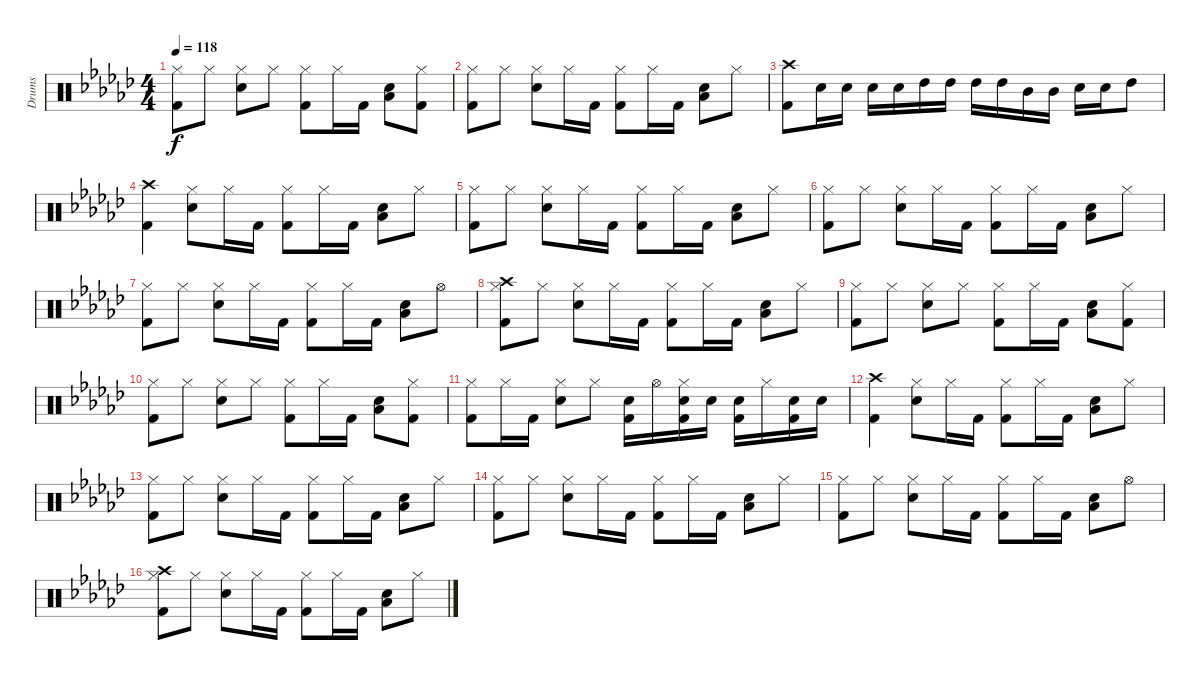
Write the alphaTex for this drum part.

\track ("Drums" "Drums") {instrument percussion}
\staff {score}
\articulation defaults
\ts (4 4)
\tempo 118
\clef neutral
\ks ebminor
("Hi-Hat (closed)" "Kick (hit) 2").8{dy f} "Hi-Hat (closed)".8 ("Hi-Hat (closed)" "Electric Snare (hit)").8 "Hi-Hat (closed)".8 ("Hi-Hat (closed)" "Kick (hit) 2").8 "Hi-Hat (closed)".16 "Kick (hit) 2".16 ("Electric Snare (hit)" "Low Tom (hit)").8 ("Hi-Hat (closed)" "Kick (hit) 2").8 |
("Hi-Hat (closed)" "Kick (hit) 2").8 "Hi-Hat (closed)".8 ("Hi-Hat (closed)" "Electric Snare (hit)").8 "Hi-Hat (closed)".16 "Kick (hit) 2".16 ("Hi-Hat (closed)" "Kick (hit) 2").8 "Hi-Hat (closed)".16 "Kick (hit) 2".16 ("Electric Snare (hit)" "Low Tom (hit)").8 "Hi-Hat (closed)".8 |
("Crash high (hit)" "Kick (hit) 2").8 "Electric Snare (hit)".16 "Electric Snare (hit)".16 "Electric Snare (hit)".16 "Electric Snare (hit)".16 "High Tom (hit)".16 "High Tom (hit)".16 "High Tom (hit)".16 "High Tom (hit)".16 "Mid Tom (hit)".16 "Mid Tom (hit)".16 "Electric Snare (hit)".16 "Electric Snare (hit)".16 "High Tom (hit)".8 |
("Crash high (hit)" "Kick (hit) 2").4 ("Hi-Hat (closed)" "Electric Snare (hit)").8 "Hi-Hat (closed)".16 "Kick (hit) 2".16 ("Hi-Hat (closed)" "Kick (hit) 2").8 "Hi-Hat (closed)".16 "Kick (hit) 2".16 ("Electric Snare (hit)" "Low Tom (hit)").8 "Hi-Hat (closed)".8 |
("Hi-Hat (closed)" "Kick (hit) 2").8 "Hi-Hat (closed)".8 ("Hi-Hat (closed)" "Electric Snare (hit)").8 "Hi-Hat (closed)".16 "Kick (hit) 2".16 ("Hi-Hat (closed)" "Kick (hit) 2").8 "Hi-Hat (closed)".16 "Kick (hit) 2".16 ("Electric Snare (hit)" "Low Tom (hit)").8 "Hi-Hat (closed)".8 |
("Hi-Hat (closed)" "Kick (hit) 2").8 "Hi-Hat (closed)".8 ("Hi-Hat (closed)" "Electric Snare (hit)").8 "Hi-Hat (closed)".16 "Kick (hit) 2".16 ("Hi-Hat (closed)" "Kick (hit) 2").8 "Hi-Hat (closed)".16 "Kick (hit) 2".16 ("Electric Snare (hit)" "Low Tom (hit)").8 "Hi-Hat (closed)".8 |
("Hi-Hat (closed)" "Kick (hit) 2").8 "Hi-Hat (closed)".8 ("Hi-Hat (closed)" "Electric Snare (hit)").8 "Hi-Hat (closed)".16 "Kick (hit) 2".16 ("Hi-Hat (closed)" "Kick (hit) 2").8 "Hi-Hat (closed)".16 "Kick (hit) 2".16 ("Electric Snare (hit)" "Low Tom (hit)").8 "Hi-Hat (open)".8 |
("Hi-Hat (closed)" "Crash high (hit)" "Kick (hit) 2").8 "Hi-Hat (closed)".8 ("Hi-Hat (closed)" "Electric Snare (hit)").8 "Hi-Hat (closed)".16 "Kick (hit) 2".16 ("Hi-Hat (closed)" "Kick (hit) 2").8 "Hi-Hat (closed)".16 "Kick (hit) 2".16 ("Electric Snare (hit)" "Low Tom (hit)").8 "Hi-Hat (closed)".8 |
("Hi-Hat (closed)" "Kick (hit) 2").8 "Hi-Hat (closed)".8 ("Hi-Hat (closed)" "Electric Snare (hit)").8 "Hi-Hat (closed)".8 ("Hi-Hat (closed)" "Kick (hit) 2").8 "Hi-Hat (closed)".16 "Kick (hit) 2".16 ("Electric Snare (hit)" "Low Tom (hit)").8 ("Hi-Hat (closed)" "Kick (hit) 2").8 |
("Hi-Hat (closed)" "Kick (hit) 2").8 "Hi-Hat (closed)".8 ("Hi-Hat (closed)" "Electric Snare (hit)").8 "Hi-Hat (closed)".8 ("Hi-Hat (closed)" "Kick (hit) 2").8 "Hi-Hat (closed)".16 "Kick (hit) 2".16 ("Electric Snare (hit)" "Low Tom (hit)").8 ("Hi-Hat (closed)" "Kick (hit) 2").8 |
("Hi-Hat (closed)" "Kick (hit) 2").8 "Hi-Hat (closed)".16 "Kick (hit) 2".16 ("Hi-Hat (closed)" "Electric Snare (hit)").8 "Hi-Hat (closed)".8 ("Electric Snare (hit)" "Kick (hit) 2").16 "Hi-Hat (open)".16 ("Hi-Hat (closed)" "Electric Snare (hit)" "Kick (hit) 2").16 "Electric Snare (hit)".16 ("Electric Snare (hit)" "Kick (hit) 2").16 "Hi-Hat (closed)".16 ("Electric Snare (hit)" "Kick (hit) 2").16 "Electric Snare (hit)".16 |
("Crash high (hit)" "Kick (hit) 2").4 ("Hi-Hat (closed)" "Electric Snare (hit)").8 "Hi-Hat (closed)".16 "Kick (hit) 2".16 ("Hi-Hat (closed)" "Kick (hit) 2").8 "Hi-Hat (closed)".16 "Kick (hit) 2".16 ("Electric Snare (hit)" "Low Tom (hit)").8 "Hi-Hat (closed)".8 |
("Hi-Hat (closed)" "Kick (hit) 2").8 "Hi-Hat (closed)".8 ("Hi-Hat (closed)" "Electric Snare (hit)").8 "Hi-Hat (closed)".16 "Kick (hit) 2".16 ("Hi-Hat (closed)" "Kick (hit) 2").8 "Hi-Hat (closed)".16 "Kick (hit) 2".16 ("Electric Snare (hit)" "Low Tom (hit)").8 "Hi-Hat (closed)".8 |
("Hi-Hat (closed)" "Kick (hit) 2").8 "Hi-Hat (closed)".8 ("Hi-Hat (closed)" "Electric Snare (hit)").8 "Hi-Hat (closed)".16 "Kick (hit) 2".16 ("Hi-Hat (closed)" "Kick (hit) 2").8 "Hi-Hat (closed)".16 "Kick (hit) 2".16 ("Electric Snare (hit)" "Low Tom (hit)").8 "Hi-Hat (closed)".8 |
("Hi-Hat (closed)" "Kick (hit) 2").8 "Hi-Hat (closed)".8 ("Hi-Hat (closed)" "Electric Snare (hit)").8 "Hi-Hat (closed)".16 "Kick (hit) 2".16 ("Hi-Hat (closed)" "Kick (hit) 2").8 "Hi-Hat (closed)".16 "Kick (hit) 2".16 ("Electric Snare (hit)" "Low Tom (hit)").8 "Hi-Hat (open)".8 |
("Hi-Hat (closed)" "Crash high (hit)" "Kick (hit) 2").8 "Hi-Hat (closed)".8 ("Hi-Hat (closed)" "Electric Snare (hit)").8 "Hi-Hat (closed)".16 "Kick (hit) 2".16 ("Hi-Hat (closed)" "Kick (hit) 2").8 "Hi-Hat (closed)".16 "Kick (hit) 2".16 ("Electric Snare (hit)" "Low Tom (hit)").8 "Hi-Hat (closed)".8
